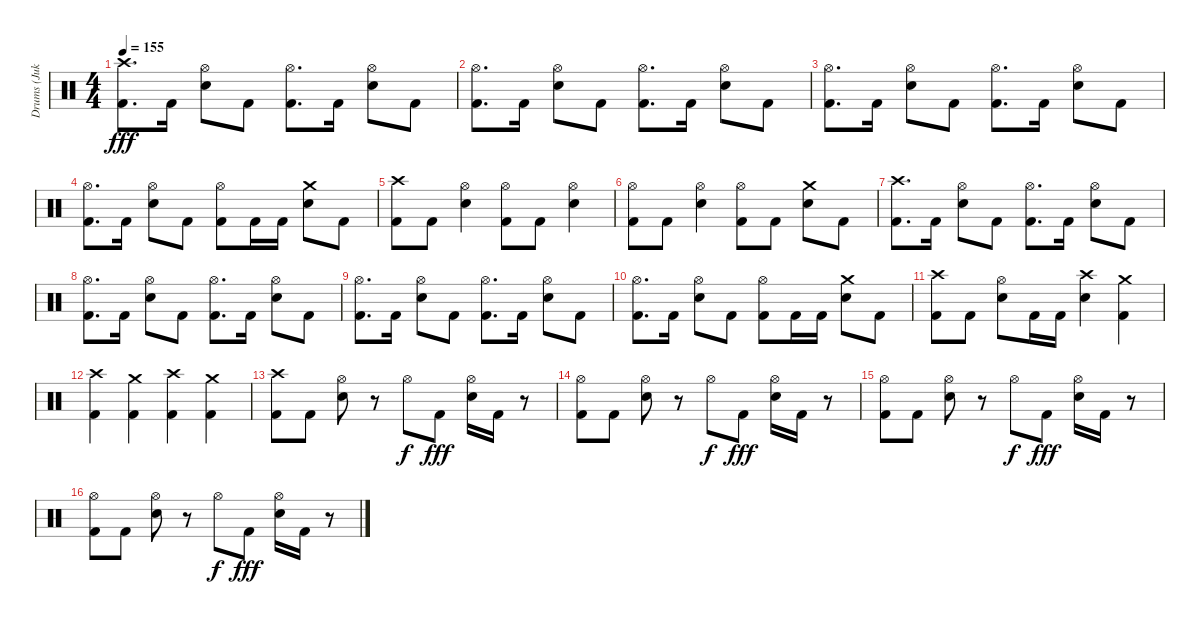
\track ("Drums (Jukka)" "Drums (Juk") {instrument percussion}
\staff {score}
\articulation defaults
\ts (4 4)
\tempo 155
\clef neutral
\ks c
("Kick (hit) 2" "Crash high (hit)").8{d dy fff} "Kick (hit) 2".16 ("Snare (hit) 2" "Hi-Hat (open)").8 "Kick (hit) 2".8 ("Kick (hit) 2" "Hi-Hat (open)").8{d} "Kick (hit) 2".16 ("Snare (hit) 2" "Hi-Hat (open)").8 "Kick (hit) 2".8 |
("Kick (hit) 2" "Hi-Hat (open)").8{d} "Kick (hit) 2".16 ("Snare (hit) 2" "Hi-Hat (open)").8 "Kick (hit) 2".8 ("Kick (hit) 2" "Hi-Hat (open)").8{d} "Kick (hit) 2".16 ("Snare (hit) 2" "Hi-Hat (open)").8 "Kick (hit) 2".8 |
("Kick (hit) 2" "Hi-Hat (open)").8{d} "Kick (hit) 2".16 ("Snare (hit) 2" "Hi-Hat (open)").8 "Kick (hit) 2".8 ("Kick (hit) 2" "Hi-Hat (open)").8{d} "Kick (hit) 2".16 ("Snare (hit) 2" "Hi-Hat (open)").8 "Kick (hit) 2".8 |
("Kick (hit) 2" "Hi-Hat (open)").8{d} "Kick (hit) 2".16 ("Snare (hit) 2" "Hi-Hat (open)").8 "Kick (hit) 2".8 ("Kick (hit) 2" "Hi-Hat (open)").8 "Kick (hit) 2".16 "Kick (hit) 2".16 ("Snare (hit) 2" "Crash medium (hit)").8 "Kick (hit) 2".8 |
("Kick (hit) 2" "Crash high (hit)").8 "Kick (hit) 2".8 ("Snare (hit) 2" "Hi-Hat (open)").4 ("Kick (hit) 2" "Hi-Hat (open)").8 "Kick (hit) 2".8 ("Snare (hit) 2" "Hi-Hat (open)").4 |
("Kick (hit) 2" "Hi-Hat (open)").8 "Kick (hit) 2".8 ("Snare (hit) 2" "Hi-Hat (open)").4 ("Kick (hit) 2" "Hi-Hat (open)").8 "Kick (hit) 2".8 ("Snare (hit) 2" "Crash medium (hit)").8 "Kick (hit) 2".8 |
("Kick (hit) 2" "Crash high (hit)").8{d} "Kick (hit) 2".16 ("Snare (hit) 2" "Hi-Hat (open)").8 "Kick (hit) 2".8 ("Kick (hit) 2" "Hi-Hat (open)").8{d} "Kick (hit) 2".16 ("Snare (hit) 2" "Hi-Hat (open)").8 "Kick (hit) 2".8 |
("Kick (hit) 2" "Hi-Hat (open)").8{d} "Kick (hit) 2".16 ("Snare (hit) 2" "Hi-Hat (open)").8 "Kick (hit) 2".8 ("Kick (hit) 2" "Hi-Hat (open)").8{d} "Kick (hit) 2".16 ("Snare (hit) 2" "Hi-Hat (open)").8 "Kick (hit) 2".8 |
("Kick (hit) 2" "Hi-Hat (open)").8{d} "Kick (hit) 2".16 ("Snare (hit) 2" "Hi-Hat (open)").8 "Kick (hit) 2".8 ("Kick (hit) 2" "Hi-Hat (open)").8{d} "Kick (hit) 2".16 ("Snare (hit) 2" "Hi-Hat (open)").8 "Kick (hit) 2".8 |
("Kick (hit) 2" "Hi-Hat (open)").8{d} "Kick (hit) 2".16 ("Snare (hit) 2" "Hi-Hat (open)").8 "Kick (hit) 2".8 ("Kick (hit) 2" "Hi-Hat (open)").8 "Kick (hit) 2".16 "Kick (hit) 2".16 ("Snare (hit) 2" "Crash medium (hit)").8 "Kick (hit) 2".8 |
("Kick (hit) 2" "Crash high (hit)").8 "Kick (hit) 2".8 ("Snare (hit) 2" "Hi-Hat (open)").8 "Kick (hit) 2".16 "Kick (hit) 2".16 ("Snare (hit) 2" "Crash high (hit)").4 ("Kick (hit) 2" "Crash medium (hit)").4 |
("Kick (hit) 2" "Crash high (hit)").4 ("Kick (hit) 2" "Crash medium (hit)").4 ("Kick (hit) 2" "Crash high (hit)").4 ("Kick (hit) 2" "Crash medium (hit)").4 |
("Kick (hit) 2" "Crash high (hit)").8 "Kick (hit) 2".8 ("Snare (hit) 2" "Hi-Hat (open)").8 r.8 "Hi-Hat (open)".8{dy f} "Kick (hit) 2".8{dy fff} ("Snare (hit) 2" "Hi-Hat (open)").16 "Kick (hit) 2".16 r.8 |
("Kick (hit) 2" "Hi-Hat (open)").8 "Kick (hit) 2".8 ("Snare (hit) 2" "Hi-Hat (open)").8 r.8 "Hi-Hat (open)".8{dy f} "Kick (hit) 2".8{dy fff} ("Snare (hit) 2" "Hi-Hat (open)").16 "Kick (hit) 2".16 r.8 |
("Kick (hit) 2" "Hi-Hat (open)").8 "Kick (hit) 2".8 ("Snare (hit) 2" "Hi-Hat (open)").8 r.8 "Hi-Hat (open)".8{dy f} "Kick (hit) 2".8{dy fff} ("Snare (hit) 2" "Hi-Hat (open)").16 "Kick (hit) 2".16 r.8 |
("Kick (hit) 2" "Hi-Hat (open)").8 "Kick (hit) 2".8 ("Snare (hit) 2" "Hi-Hat (open)").8 r.8 "Hi-Hat (open)".8{dy f} "Kick (hit) 2".8{dy fff} ("Snare (hit) 2" "Hi-Hat (open)").16 "Kick (hit) 2".16 r.8
